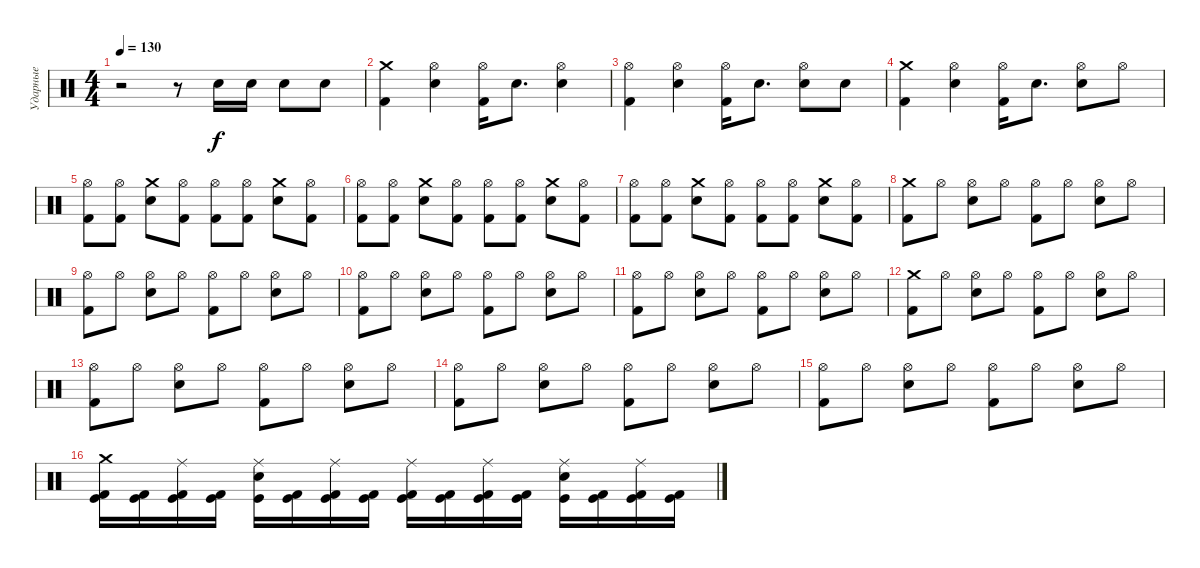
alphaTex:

\track ("Ударные" "Ударные") {instrument percussion}
\staff {score}
\articulation defaults
\ts (4 4)
\tempo 130
\clef neutral
\ks c
r.2{dy f} r.8 "Electric Snare (hit)".16 "Electric Snare (hit)".16 "Electric Snare (hit)".8 "Electric Snare (hit)".8 |
("Crash medium (hit)" "Kick (hit) 2").4 ("Hi-Hat (open)" "Electric Snare (hit)").4 ("Hi-Hat (open)" "Kick (hit) 2").16 "Electric Snare (hit)".8{d} ("Hi-Hat (open)" "Electric Snare (hit)").4 |
("Hi-Hat (open)" "Kick (hit) 2").4 ("Hi-Hat (open)" "Electric Snare (hit)").4 ("Hi-Hat (open)" "Kick (hit) 2").16 "Electric Snare (hit)".8{d} ("Hi-Hat (open)" "Electric Snare (hit)").8 "Electric Snare (hit)".8 |
("Crash medium (hit)" "Kick (hit) 2").4 ("Hi-Hat (open)" "Electric Snare (hit)").4 ("Hi-Hat (open)" "Kick (hit) 2").16 "Electric Snare (hit)".8{d} ("Hi-Hat (open)" "Electric Snare (hit)").8 "Hi-Hat (open)".8 |
("Hi-Hat (open)" "Kick (hit) 2").8 ("Hi-Hat (open)" "Kick (hit) 2").8 ("Crash medium (hit)" "Electric Snare (hit)").8 ("Hi-Hat (open)" "Kick (hit) 2").8 ("Hi-Hat (open)" "Kick (hit) 2").8 ("Hi-Hat (open)" "Kick (hit) 2").8 ("Crash medium (hit)" "Electric Snare (hit)").8 ("Hi-Hat (open)" "Kick (hit) 2").8 |
("Hi-Hat (open)" "Kick (hit) 2").8 ("Hi-Hat (open)" "Kick (hit) 2").8 ("Crash medium (hit)" "Electric Snare (hit)").8 ("Hi-Hat (open)" "Kick (hit) 2").8 ("Hi-Hat (open)" "Kick (hit) 2").8 ("Hi-Hat (open)" "Kick (hit) 2").8 ("Crash medium (hit)" "Electric Snare (hit)").8 ("Hi-Hat (open)" "Kick (hit) 2").8 |
("Hi-Hat (open)" "Kick (hit) 2").8 ("Hi-Hat (open)" "Kick (hit) 2").8 ("Crash medium (hit)" "Electric Snare (hit)").8 ("Hi-Hat (open)" "Kick (hit) 2").8 ("Hi-Hat (open)" "Kick (hit) 2").8 ("Hi-Hat (open)" "Kick (hit) 2").8 ("Crash medium (hit)" "Electric Snare (hit)").8 ("Hi-Hat (open)" "Kick (hit) 2").8 |
("Crash medium (hit)" "Kick (hit) 2").8 "Hi-Hat (open)".8 ("Hi-Hat (open)" "Electric Snare (hit)").8 "Hi-Hat (open)".8 ("Hi-Hat (open)" "Kick (hit) 2").8 "Hi-Hat (open)".8 ("Hi-Hat (open)" "Electric Snare (hit)").8 "Hi-Hat (open)".8 |
("Hi-Hat (open)" "Kick (hit) 2").8 "Hi-Hat (open)".8 ("Hi-Hat (open)" "Electric Snare (hit)").8 "Hi-Hat (open)".8 ("Hi-Hat (open)" "Kick (hit) 2").8 "Hi-Hat (open)".8 ("Hi-Hat (open)" "Electric Snare (hit)").8 "Hi-Hat (open)".8 |
("Hi-Hat (open)" "Kick (hit) 2").8 "Hi-Hat (open)".8 ("Hi-Hat (open)" "Electric Snare (hit)").8 "Hi-Hat (open)".8 ("Hi-Hat (open)" "Kick (hit) 2").8 "Hi-Hat (open)".8 ("Hi-Hat (open)" "Electric Snare (hit)").8 "Hi-Hat (open)".8 |
("Hi-Hat (open)" "Kick (hit) 2").8 "Hi-Hat (open)".8 ("Hi-Hat (open)" "Electric Snare (hit)").8 "Hi-Hat (open)".8 ("Hi-Hat (open)" "Kick (hit) 2").8 "Hi-Hat (open)".8 ("Hi-Hat (open)" "Electric Snare (hit)").8 "Hi-Hat (open)".8 |
("Crash medium (hit)" "Kick (hit) 2").8 "Hi-Hat (open)".8 ("Hi-Hat (open)" "Electric Snare (hit)").8 "Hi-Hat (open)".8 ("Hi-Hat (open)" "Kick (hit) 2").8 "Hi-Hat (open)".8 ("Hi-Hat (open)" "Electric Snare (hit)").8 "Hi-Hat (open)".8 |
("Hi-Hat (open)" "Kick (hit) 2").8 "Hi-Hat (open)".8 ("Hi-Hat (open)" "Electric Snare (hit)").8 "Hi-Hat (open)".8 ("Hi-Hat (open)" "Kick (hit) 2").8 "Hi-Hat (open)".8 ("Hi-Hat (open)" "Electric Snare (hit)").8 "Hi-Hat (open)".8 |
("Hi-Hat (open)" "Kick (hit) 2").8 "Hi-Hat (open)".8 ("Hi-Hat (open)" "Electric Snare (hit)").8 "Hi-Hat (open)".8 ("Hi-Hat (open)" "Kick (hit) 2").8 "Hi-Hat (open)".8 ("Hi-Hat (open)" "Electric Snare (hit)").8 "Hi-Hat (open)".8 |
("Hi-Hat (open)" "Kick (hit) 2").8 "Hi-Hat (open)".8 ("Hi-Hat (open)" "Electric Snare (hit)").8 "Hi-Hat (open)".8 ("Hi-Hat (open)" "Kick (hit) 2").8 "Hi-Hat (open)".8 ("Hi-Hat (open)" "Electric Snare (hit)").8 "Hi-Hat (open)".8 |
("Crash medium (hit)" "Kick (hit) 2" "Kick (hit)").16 ("Kick (hit) 2" "Kick (hit)").16 ("Ride (middle)" "Kick (hit) 2" "Kick (hit)").16 ("Kick (hit) 2" "Kick (hit)").16 ("Ride (middle)" "Electric Snare (hit)" "Kick (hit)").16 ("Kick (hit) 2" "Kick (hit)").16 ("Ride (middle)" "Kick (hit) 2" "Kick (hit)").16 ("Kick (hit) 2" "Kick (hit)").16 ("Ride (middle)" "Kick (hit) 2" "Kick (hit)").16 ("Kick (hit) 2" "Kick (hit)").16 ("Ride (middle)" "Kick (hit) 2" "Kick (hit)").16 ("Kick (hit) 2" "Kick (hit)").16 ("Ride (middle)" "Electric Snare (hit)" "Kick (hit)").16 ("Kick (hit) 2" "Kick (hit)").16 ("Ride (middle)" "Kick (hit) 2" "Kick (hit)").16 ("Kick (hit) 2" "Kick (hit)").16
